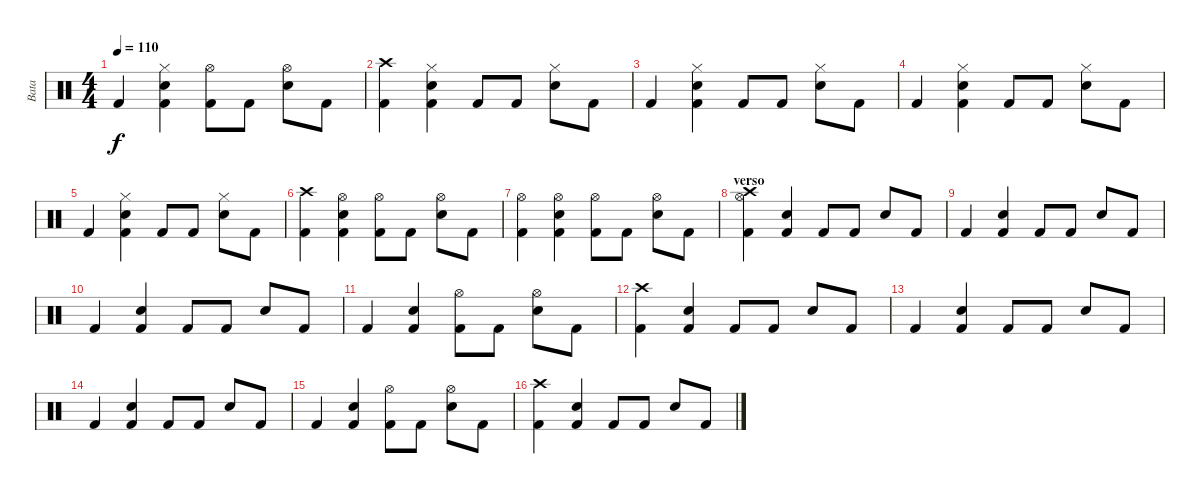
\track ("Bata" "Bata") {instrument percussion}
\staff {score}
\articulation defaults
\ts (4 4)
\tempo 110
\clef neutral
\ks c "Kick (hit) 2".4{dy f}
("Kick (hit) 2" "Snare (hit) 2" "Hi-Hat (closed)").4 ("Kick (hit) 2" "Hi-Hat (open)").8 "Kick (hit) 2".8 ("Snare (hit) 2" "Hi-Hat (open)").8 "Kick (hit) 2".8 |
("Kick (hit) 2" "Crash high (hit)").4 ("Kick (hit) 2" "Snare (hit) 2" "Hi-Hat (closed)").4 "Kick (hit) 2".8 "Kick (hit) 2".8 ("Snare (hit) 2" "Hi-Hat (closed)").8 "Kick (hit) 2".8 |
"Kick (hit) 2".4 ("Kick (hit) 2" "Snare (hit) 2" "Hi-Hat (closed)").4 "Kick (hit) 2".8 "Kick (hit) 2".8 ("Snare (hit) 2" "Hi-Hat (closed)").8 "Kick (hit) 2".8 |
"Kick (hit) 2".4 ("Kick (hit) 2" "Snare (hit) 2" "Hi-Hat (closed)").4 "Kick (hit) 2".8 "Kick (hit) 2".8 ("Snare (hit) 2" "Hi-Hat (closed)").8 "Kick (hit) 2".8 |
"Kick (hit) 2".4 ("Kick (hit) 2" "Snare (hit) 2" "Hi-Hat (closed)").4 "Kick (hit) 2".8 "Kick (hit) 2".8 ("Snare (hit) 2" "Hi-Hat (closed)").8 "Kick (hit) 2".8 |
("Kick (hit) 2" "Crash high (hit)").4 ("Kick (hit) 2" "Snare (hit) 2" "Hi-Hat (open)").4 ("Kick (hit) 2" "Hi-Hat (open)").8 "Kick (hit) 2".8 ("Snare (hit) 2" "Hi-Hat (open)").8 "Kick (hit) 2".8 |
("Kick (hit) 2" "Hi-Hat (open)").4 ("Kick (hit) 2" "Snare (hit) 2" "Hi-Hat (open)").4 ("Kick (hit) 2" "Hi-Hat (open)").8 "Kick (hit) 2".8 ("Snare (hit) 2" "Hi-Hat (open)").8 "Kick (hit) 2".8 |
\section ("" "verso")
("Kick (hit) 2" "Hi-Hat (open)" "Crash high (hit)").4 ("Kick (hit) 2" "Snare (hit) 2").4 "Kick (hit) 2".8 "Kick (hit) 2".8 "Snare (hit) 2".8 "Kick (hit) 2".8 |
"Kick (hit) 2".4 ("Kick (hit) 2" "Snare (hit) 2").4 "Kick (hit) 2".8 "Kick (hit) 2".8 "Snare (hit) 2".8 "Kick (hit) 2".8 |
"Kick (hit) 2".4 ("Kick (hit) 2" "Snare (hit) 2").4 "Kick (hit) 2".8 "Kick (hit) 2".8 "Snare (hit) 2".8 "Kick (hit) 2".8 |
"Kick (hit) 2".4 ("Kick (hit) 2" "Snare (hit) 2").4 ("Kick (hit) 2" "Hi-Hat (open)").8 "Kick (hit) 2".8 ("Snare (hit) 2" "Hi-Hat (open)").8 "Kick (hit) 2".8 |
("Kick (hit) 2" "Crash high (hit)").4 ("Kick (hit) 2" "Snare (hit) 2").4 "Kick (hit) 2".8 "Kick (hit) 2".8 "Snare (hit) 2".8 "Kick (hit) 2".8 |
"Kick (hit) 2".4 ("Kick (hit) 2" "Snare (hit) 2").4 "Kick (hit) 2".8 "Kick (hit) 2".8 "Snare (hit) 2".8 "Kick (hit) 2".8 |
"Kick (hit) 2".4 ("Kick (hit) 2" "Snare (hit) 2").4 "Kick (hit) 2".8 "Kick (hit) 2".8 "Snare (hit) 2".8 "Kick (hit) 2".8 |
"Kick (hit) 2".4 ("Kick (hit) 2" "Snare (hit) 2").4 ("Kick (hit) 2" "Hi-Hat (open)").8 "Kick (hit) 2".8 ("Snare (hit) 2" "Hi-Hat (open)").8 "Kick (hit) 2".8 |
("Kick (hit) 2" "Crash high (hit)").4 ("Kick (hit) 2" "Snare (hit) 2").4 "Kick (hit) 2".8 "Kick (hit) 2".8 "Snare (hit) 2".8 "Kick (hit) 2".8
